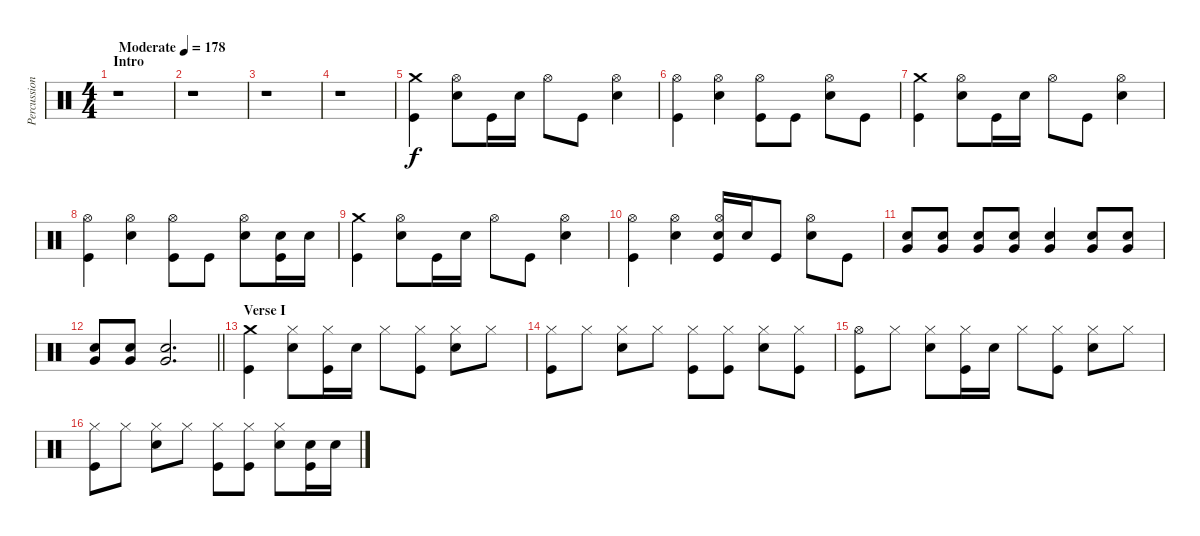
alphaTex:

\track ("Percussion" "Percussion") {instrument percussion}
\staff {score}
\articulation defaults
\ts (4 4)
\section ("" "Intro")
\tempo (178 "Moderate")
\clef neutral
\ks c
r.1{dy f} |
r.1 |
r.1 |
r.1 |
("Crash medium (hit)" "Kick (hit)").4 ("Hi-Hat (open)" "Electric Snare (hit)").8 "Kick (hit)".16 "Electric Snare (hit)".16 "Hi-Hat (open)".8 "Kick (hit)".8 ("Hi-Hat (open)" "Electric Snare (hit)").4 |
("Hi-Hat (open)" "Kick (hit)").4 ("Hi-Hat (open)" "Electric Snare (hit)").4 ("Hi-Hat (open)" "Kick (hit)").8 "Kick (hit)".8 ("Hi-Hat (open)" "Electric Snare (hit)").8 "Kick (hit)".8 |
("Crash medium (hit)" "Kick (hit)").4 ("Hi-Hat (open)" "Electric Snare (hit)").8 "Kick (hit)".16 "Electric Snare (hit)".16 "Hi-Hat (open)".8 "Kick (hit)".8 ("Hi-Hat (open)" "Electric Snare (hit)").4 |
("Hi-Hat (open)" "Kick (hit)").4 ("Hi-Hat (open)" "Electric Snare (hit)").4 ("Hi-Hat (open)" "Kick (hit)").8 "Kick (hit)".8 ("Hi-Hat (open)" "Electric Snare (hit)").8 ("Electric Snare (hit)" "Kick (hit)").16 "Electric Snare (hit)".16 |
("Crash medium (hit)" "Kick (hit)").4 ("Hi-Hat (open)" "Electric Snare (hit)").8 "Kick (hit)".16 "Electric Snare (hit)".16 "Hi-Hat (open)".8 "Kick (hit)".8 ("Hi-Hat (open)" "Electric Snare (hit)").4 |
("Hi-Hat (open)" "Kick (hit)").4 ("Hi-Hat (open)" "Electric Snare (hit)").4 ("Hi-Hat (open)" "Electric Snare (hit)" "Kick (hit)").16 "Electric Snare (hit)".16 "Kick (hit)".8 ("Hi-Hat (open)" "Electric Snare (hit)").8 "Kick (hit)".8 |
("Electric Snare (hit)" "Very Low Tom (hit)").8 ("Electric Snare (hit)" "Very Low Tom (hit)").8 ("Electric Snare (hit)" "Very Low Tom (hit)").8 ("Electric Snare (hit)" "Very Low Tom (hit)").8 ("Electric Snare (hit)" "Very Low Tom (hit)").4 ("Electric Snare (hit)" "Very Low Tom (hit)").8 ("Electric Snare (hit)" "Very Low Tom (hit)").8 |
\barLineRight lightlight
("Electric Snare (hit)" "Very Low Tom (hit)").8 ("Electric Snare (hit)" "Very Low Tom (hit)").8 ("Electric Snare (hit)" "Very Low Tom (hit)").2{d} |
\section ("" "Verse I")
("Crash medium (hit)" "Kick (hit)").4 ("Hi-Hat (closed)" "Electric Snare (hit)").8 ("Hi-Hat (closed)" "Kick (hit)").16 "Electric Snare (hit)".16 "Hi-Hat (closed)".8 ("Hi-Hat (closed)" "Kick (hit)").8 ("Hi-Hat (closed)" "Electric Snare (hit)").8 "Hi-Hat (closed)".8 |
("Hi-Hat (closed)" "Kick (hit)").8 "Hi-Hat (closed)".8 ("Hi-Hat (closed)" "Electric Snare (hit)").8 "Hi-Hat (closed)".8 ("Hi-Hat (closed)" "Kick (hit)").8 ("Hi-Hat (closed)" "Kick (hit)").8 ("Hi-Hat (closed)" "Electric Snare (hit)").8 ("Hi-Hat (closed)" "Kick (hit)").8 |
("Hi-Hat (open)" "Kick (hit)").8 "Hi-Hat (closed)".8 ("Hi-Hat (closed)" "Electric Snare (hit)").8 ("Hi-Hat (closed)" "Kick (hit)").16 "Electric Snare (hit)".16 "Hi-Hat (closed)".8 ("Hi-Hat (closed)" "Kick (hit)").8 ("Hi-Hat (closed)" "Electric Snare (hit)").8 "Hi-Hat (closed)".8 |
("Hi-Hat (closed)" "Kick (hit)").8 "Hi-Hat (closed)".8 ("Hi-Hat (closed)" "Electric Snare (hit)").8 "Hi-Hat (closed)".8 ("Hi-Hat (closed)" "Kick (hit)").8 ("Hi-Hat (closed)" "Kick (hit)").8 ("Hi-Hat (closed)" "Electric Snare (hit)").8 ("Electric Snare (hit)" "Kick (hit)").16 "Electric Snare (hit)".16
